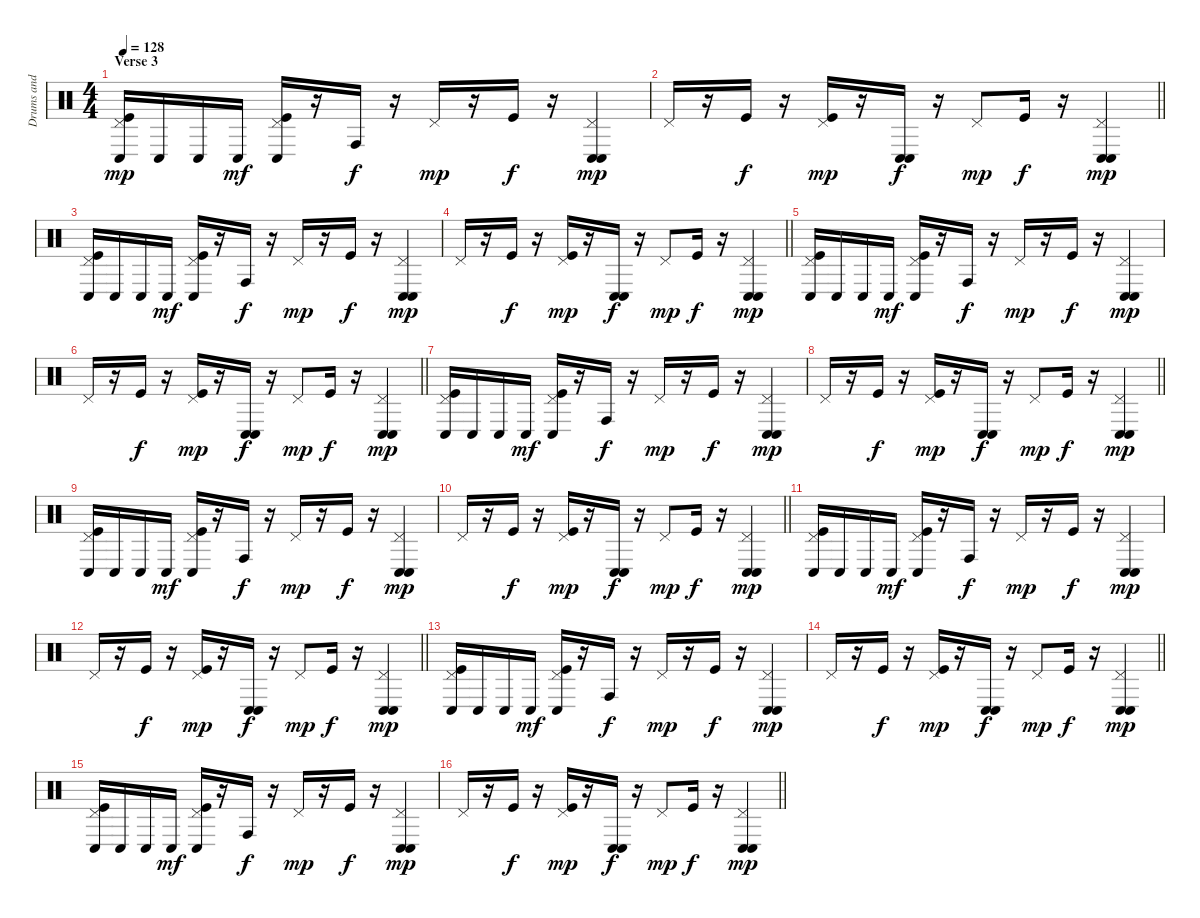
\track ("Drums and Percussions" "Drums and ") {instrument percussion}
\staff {score}
\articulation defaults
\ts (4 4)
\section ("" "Verse 3")
\tempo 128
\clef neutral
\ks c
("Pedal Hi-Hat (hit)" "Conga low (hit)" "Kick (hit)").16{dy mp} "Conga low (hit)".16 "Conga low (hit)".16 "Conga low (hit)".16{dy mf} ("Pedal Hi-Hat (hit)" "Conga low (hit)" "Kick (hit)").16 r.16 "Conga high (hit)".16{dy f} r.16 "Pedal Hi-Hat (hit)".16{dy mp} r.16 "Kick (hit)".16{dy f} r.16 ("Conga low (hit)" "Conga low (hit)" "Pedal Hi-Hat (hit)").4{bd 120 dy mp} |
\barLineRight lightlight "Pedal Hi-Hat (hit)".16
r.16 "Kick (hit)".16{dy f} r.16 ("Pedal Hi-Hat (hit)" "Kick (hit)").16{dy mp} r.16 ("Conga low (hit)" "Conga low (hit)").16{bd 120 dy f} r.16 "Pedal Hi-Hat (hit)".8{dy mp} "Kick (hit)".16{dy f} r.16 ("Conga low (hit)" "Conga low (hit)" "Pedal Hi-Hat (hit)").4{bd 120 dy mp} |
("Pedal Hi-Hat (hit)" "Conga low (hit)" "Kick (hit)").16 "Conga low (hit)".16 "Conga low (hit)".16 "Conga low (hit)".16{dy mf} ("Pedal Hi-Hat (hit)" "Conga low (hit)" "Kick (hit)").16 r.16 "Conga high (hit)".16{dy f} r.16 "Pedal Hi-Hat (hit)".16{dy mp} r.16 "Kick (hit)".16{dy f} r.16 ("Conga low (hit)" "Conga low (hit)" "Pedal Hi-Hat (hit)").4{bd 120 dy mp} |
\barLineRight lightlight "Pedal Hi-Hat (hit)".16
r.16 "Kick (hit)".16{dy f} r.16 ("Pedal Hi-Hat (hit)" "Kick (hit)").16{dy mp} r.16 ("Conga low (hit)" "Conga low (hit)").16{bd 120 dy f} r.16 "Pedal Hi-Hat (hit)".8{dy mp} "Kick (hit)".16{dy f} r.16 ("Conga low (hit)" "Conga low (hit)" "Pedal Hi-Hat (hit)").4{bd 120 dy mp} |
("Pedal Hi-Hat (hit)" "Conga low (hit)" "Kick (hit)").16 "Conga low (hit)".16 "Conga low (hit)".16 "Conga low (hit)".16{dy mf} ("Pedal Hi-Hat (hit)" "Conga low (hit)" "Kick (hit)").16 r.16 "Conga high (hit)".16{dy f} r.16 "Pedal Hi-Hat (hit)".16{dy mp} r.16 "Kick (hit)".16{dy f} r.16 ("Conga low (hit)" "Conga low (hit)" "Pedal Hi-Hat (hit)").4{bd 120 dy mp} |
\barLineRight lightlight "Pedal Hi-Hat (hit)".16
r.16 "Kick (hit)".16{dy f} r.16 ("Pedal Hi-Hat (hit)" "Kick (hit)").16{dy mp} r.16 ("Conga low (hit)" "Conga low (hit)").16{bd 120 dy f} r.16 "Pedal Hi-Hat (hit)".8{dy mp} "Kick (hit)".16{dy f} r.16 ("Conga low (hit)" "Conga low (hit)" "Pedal Hi-Hat (hit)").4{bd 120 dy mp} |
("Pedal Hi-Hat (hit)" "Conga low (hit)" "Kick (hit)").16 "Conga low (hit)".16 "Conga low (hit)".16 "Conga low (hit)".16{dy mf} ("Pedal Hi-Hat (hit)" "Conga low (hit)" "Kick (hit)").16 r.16 "Conga high (hit)".16{dy f} r.16 "Pedal Hi-Hat (hit)".16{dy mp} r.16 "Kick (hit)".16{dy f} r.16 ("Conga low (hit)" "Conga low (hit)" "Pedal Hi-Hat (hit)").4{bd 120 dy mp} |
\barLineRight lightlight "Pedal Hi-Hat (hit)".16
r.16 "Kick (hit)".16{dy f} r.16 ("Pedal Hi-Hat (hit)" "Kick (hit)").16{dy mp} r.16 ("Conga low (hit)" "Conga low (hit)").16{bd 120 dy f} r.16 "Pedal Hi-Hat (hit)".8{dy mp} "Kick (hit)".16{dy f} r.16 ("Conga low (hit)" "Conga low (hit)" "Pedal Hi-Hat (hit)").4{bd 120 dy mp} |
("Pedal Hi-Hat (hit)" "Conga low (hit)" "Kick (hit)").16 "Conga low (hit)".16 "Conga low (hit)".16 "Conga low (hit)".16{dy mf} ("Pedal Hi-Hat (hit)" "Conga low (hit)" "Kick (hit)").16 r.16 "Conga high (hit)".16{dy f} r.16 "Pedal Hi-Hat (hit)".16{dy mp} r.16 "Kick (hit)".16{dy f} r.16 ("Conga low (hit)" "Conga low (hit)" "Pedal Hi-Hat (hit)").4{bd 120 dy mp} |
\barLineRight lightlight "Pedal Hi-Hat (hit)".16
r.16 "Kick (hit)".16{dy f} r.16 ("Pedal Hi-Hat (hit)" "Kick (hit)").16{dy mp} r.16 ("Conga low (hit)" "Conga low (hit)").16{bd 120 dy f} r.16 "Pedal Hi-Hat (hit)".8{dy mp} "Kick (hit)".16{dy f} r.16 ("Conga low (hit)" "Conga low (hit)" "Pedal Hi-Hat (hit)").4{bd 120 dy mp} |
("Pedal Hi-Hat (hit)" "Conga low (hit)" "Kick (hit)").16 "Conga low (hit)".16 "Conga low (hit)".16 "Conga low (hit)".16{dy mf} ("Pedal Hi-Hat (hit)" "Conga low (hit)" "Kick (hit)").16 r.16 "Conga high (hit)".16{dy f} r.16 "Pedal Hi-Hat (hit)".16{dy mp} r.16 "Kick (hit)".16{dy f} r.16 ("Conga low (hit)" "Conga low (hit)" "Pedal Hi-Hat (hit)").4{bd 120 dy mp} |
\barLineRight lightlight "Pedal Hi-Hat (hit)".16
r.16 "Kick (hit)".16{dy f} r.16 ("Pedal Hi-Hat (hit)" "Kick (hit)").16{dy mp} r.16 ("Conga low (hit)" "Conga low (hit)").16{bd 120 dy f} r.16 "Pedal Hi-Hat (hit)".8{dy mp} "Kick (hit)".16{dy f} r.16 ("Conga low (hit)" "Conga low (hit)" "Pedal Hi-Hat (hit)").4{bd 120 dy mp} |
("Pedal Hi-Hat (hit)" "Conga low (hit)" "Kick (hit)").16 "Conga low (hit)".16 "Conga low (hit)".16 "Conga low (hit)".16{dy mf} ("Pedal Hi-Hat (hit)" "Conga low (hit)" "Kick (hit)").16 r.16 "Conga high (hit)".16{dy f} r.16 "Pedal Hi-Hat (hit)".16{dy mp} r.16 "Kick (hit)".16{dy f} r.16 ("Conga low (hit)" "Conga low (hit)" "Pedal Hi-Hat (hit)").4{bd 120 dy mp} |
\barLineRight lightlight "Pedal Hi-Hat (hit)".16
r.16 "Kick (hit)".16{dy f} r.16 ("Pedal Hi-Hat (hit)" "Kick (hit)").16{dy mp} r.16 ("Conga low (hit)" "Conga low (hit)").16{bd 120 dy f} r.16 "Pedal Hi-Hat (hit)".8{dy mp} "Kick (hit)".16{dy f} r.16 ("Conga low (hit)" "Conga low (hit)" "Pedal Hi-Hat (hit)").4{bd 120 dy mp} |
("Pedal Hi-Hat (hit)" "Conga low (hit)" "Kick (hit)").16 "Conga low (hit)".16 "Conga low (hit)".16 "Conga low (hit)".16{dy mf} ("Pedal Hi-Hat (hit)" "Conga low (hit)" "Kick (hit)").16 r.16 "Conga high (hit)".16{dy f} r.16 "Pedal Hi-Hat (hit)".16{dy mp} r.16 "Kick (hit)".16{dy f} r.16 ("Conga low (hit)" "Conga low (hit)" "Pedal Hi-Hat (hit)").4{bd 120 dy mp} |
\barLineRight lightlight "Pedal Hi-Hat (hit)".16
r.16 "Kick (hit)".16{dy f} r.16 ("Pedal Hi-Hat (hit)" "Kick (hit)").16{dy mp} r.16 ("Conga low (hit)" "Conga low (hit)").16{bd 120 dy f} r.16 "Pedal Hi-Hat (hit)".8{dy mp} "Kick (hit)".16{dy f} r.16 ("Conga low (hit)" "Conga low (hit)" "Pedal Hi-Hat (hit)").4{bd 120 dy mp}
